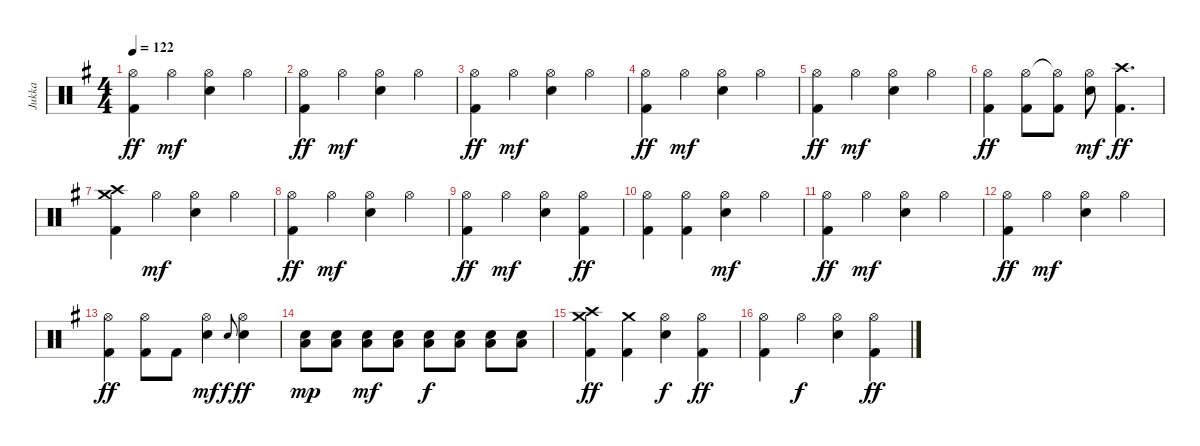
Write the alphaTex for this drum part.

\track ("Jukka" "Jukka") {instrument percussion}
\staff {score}
\articulation defaults
\ts (4 4)
\tempo 122
\clef neutral
\ks g
("Hi-Hat (open)" "Kick (hit) 2").4{dy ff} "Hi-Hat (open)".4{dy mf} ("Hi-Hat (open)" "Electric Snare (hit)").4 "Hi-Hat (open)".4 |
("Hi-Hat (open)" "Kick (hit) 2").4{dy ff} "Hi-Hat (open)".4{dy mf} ("Hi-Hat (open)" "Electric Snare (hit)").4 "Hi-Hat (open)".4 |
("Hi-Hat (open)" "Kick (hit) 2").4{dy ff} "Hi-Hat (open)".4{dy mf} ("Hi-Hat (open)" "Electric Snare (hit)").4 "Hi-Hat (open)".4 |
("Hi-Hat (open)" "Kick (hit) 2").4{dy ff} "Hi-Hat (open)".4{dy mf} ("Hi-Hat (open)" "Electric Snare (hit)").4 "Hi-Hat (open)".4 |
("Hi-Hat (open)" "Kick (hit) 2").4{dy ff} "Hi-Hat (open)".4{dy mf} ("Hi-Hat (open)" "Electric Snare (hit)").4 "Hi-Hat (open)".4 |
("Hi-Hat (open)" "Kick (hit) 2").4{dy ff} ("Hi-Hat (open)" "Kick (hit) 2").8 ("Hi-Hat (open)"{t} "Kick (hit) 2").8 ("Hi-Hat (open)" "Electric Snare (hit)").8{dy mf} ("Crash high (hit)" "Kick (hit) 2").4{d dy ff} |
("Crash medium (hit)" "Crash high (hit)" "Kick (hit) 2").4 "Hi-Hat (open)".4{dy mf} ("Hi-Hat (open)" "Electric Snare (hit)").4 "Hi-Hat (open)".4 |
("Hi-Hat (open)" "Kick (hit) 2").4{dy ff} "Hi-Hat (open)".4{dy mf} ("Hi-Hat (open)" "Electric Snare (hit)").4 "Hi-Hat (open)".4 |
("Hi-Hat (open)" "Kick (hit) 2").4{dy ff} "Hi-Hat (open)".4{dy mf} ("Hi-Hat (open)" "Electric Snare (hit)").4 ("Hi-Hat (open)" "Kick (hit) 2").4{dy ff} |
("Hi-Hat (open)" "Kick (hit) 2").4 ("Hi-Hat (open)" "Kick (hit) 2").4 ("Hi-Hat (open)" "Electric Snare (hit)").4{dy mf} "Hi-Hat (open)".4 |
("Hi-Hat (open)" "Kick (hit) 2").4{dy ff} "Hi-Hat (open)".4{dy mf} ("Hi-Hat (open)" "Electric Snare (hit)").4 "Hi-Hat (open)".4 |
("Hi-Hat (open)" "Kick (hit) 2").4{dy ff} "Hi-Hat (open)".4{dy mf} ("Hi-Hat (open)" "Electric Snare (hit)").4 "Hi-Hat (open)".4 |
("Hi-Hat (open)" "Kick (hit) 2").4{dy ff} ("Hi-Hat (open)" "Kick (hit) 2").8 "Kick (hit) 2".8 ("Hi-Hat (open)" "Electric Snare (hit)").4{dy mf} "Electric Snare (hit)".8{gr onbeat dy f} ("Hi-Hat (open)" "Electric Snare (hit)").4{dy ff} |
("Low Floor Tom (hit)" "Electric Snare (hit)").8{dy mp} ("Low Floor Tom (hit)" "Electric Snare (hit)").8 ("Low Floor Tom (hit)" "Electric Snare (hit)").8{dy mf} ("Low Floor Tom (hit)" "Electric Snare (hit)").8 ("Low Floor Tom (hit)" "Electric Snare (hit)").8{dy f} ("Low Floor Tom (hit)" "Electric Snare (hit)").8 ("Low Floor Tom (hit)" "Electric Snare (hit)").8 ("Low Floor Tom (hit)" "Electric Snare (hit)").8 |
("Crash high (hit)" "Crash medium (hit)" "Kick (hit) 2").4{dy ff} ("Crash medium (hit)" "Kick (hit) 2").4 ("Hi-Hat (open)" "Electric Snare (hit)").4{dy f} ("Hi-Hat (open)" "Kick (hit) 2").4{dy ff} |
("Hi-Hat (open)" "Kick (hit) 2").4 "Hi-Hat (open)".4{dy f} ("Hi-Hat (open)" "Electric Snare (hit)").4 ("Hi-Hat (open)" "Kick (hit) 2").4{dy ff}
